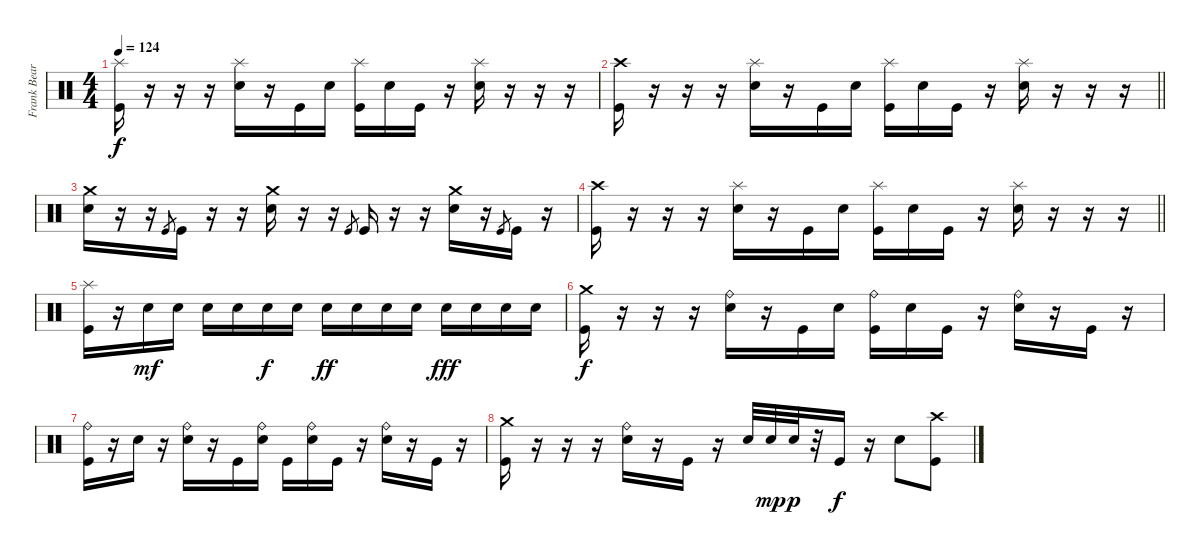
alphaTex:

\track ("Frank Beard" "Frank Bear") {instrument percussion}
\staff {score}
\articulation defaults
\ts (4 4)
\tempo 124
\clef neutral
\ks c
("Splash (hit)" "Kick (hit)").16{dy f} r.16 r.16 r.16 ("Splash (hit)" "Electric Snare (hit)").16 r.16 "Kick (hit)".16 "Electric Snare (hit)".16 ("Splash (hit)" "Kick (hit)").16 "Electric Snare (hit)".16 "Kick (hit)".16 r.16 ("Splash (hit)" "Electric Snare (hit)").16 r.16 r.16 r.16 |
\barLineRight lightlight
("Crash high (hit)" "Kick (hit)").16 r.16 r.16 r.16 ("Splash (hit)" "Electric Snare (hit)").16 r.16 "Kick (hit)".16 "Electric Snare (hit)".16 ("Splash (hit)" "Kick (hit)").16 "Electric Snare (hit)".16 "Kick (hit)".16 r.16 ("Splash (hit)" "Electric Snare (hit)").16 r.16 r.16 r.16 |
("Crash medium (hit)" "Electric Snare (hit)").16 r.16 r.16 "Kick (hit)".8{gr} "Kick (hit)".16 r.16 r.16 ("Crash medium (hit)" "Electric Snare (hit)").16 r.16 r.16 "Kick (hit)".8{gr} "Kick (hit)".16 r.16 r.16 ("Crash medium (hit)" "Electric Snare (hit)").16 r.16 "Kick (hit)".8{gr} "Kick (hit)".16 r.16 |
\barLineRight lightlight
("Crash high (hit)" "Kick (hit)").16 r.16 r.16 r.16 ("Splash (hit)" "Electric Snare (hit)").16 r.16 "Kick (hit)".16 "Electric Snare (hit)".16 ("Splash (hit)" "Kick (hit)").16 "Electric Snare (hit)".16 "Kick (hit)".16 r.16 ("Splash (hit)" "Electric Snare (hit)").16 r.16 r.16 r.16 |
("Splash (hit)" "Kick (hit)").16 r.16 "Electric Snare (hit)".16{dy mf} "Electric Snare (hit)".16 "Electric Snare (hit)".16 "Electric Snare (hit)".16 "Electric Snare (hit)".16{dy f} "Electric Snare (hit)".16 "Electric Snare (hit)".16{dy ff} "Electric Snare (hit)".16 "Electric Snare (hit)".16 "Electric Snare (hit)".16 "Electric Snare (hit)".16{dy fff} "Electric Snare (hit)".16 "Electric Snare (hit)".16 "Electric Snare (hit)".16 |
("Crash medium (hit)" "Kick (hit)").16{dy f} r.16 r.16 r.16 ("Ride (bell)" "Electric Snare (hit)").16 r.16 "Kick (hit)".16 "Electric Snare (hit)".16 ("Ride (bell)" "Kick (hit)").16 "Electric Snare (hit)".16 "Kick (hit)".16 r.16 ("Ride (bell)" "Electric Snare (hit)").16 r.16 "Kick (hit)".16 r.16 |
("Ride (bell)" "Kick (hit)").16 r.16 "Electric Snare (hit)".16 r.16 ("Ride (bell)" "Electric Snare (hit)").16 r.16 "Kick (hit)".16 ("Ride (bell)" "Electric Snare (hit)").16 "Kick (hit)".16 ("Ride (bell)" "Electric Snare (hit)").16 "Kick (hit)".16 r.16 ("Ride (bell)" "Electric Snare (hit)").16 r.16 "Kick (hit)".16 r.16 |
("Crash medium (hit)" "Kick (hit)").16 r.16 r.16 r.16 ("Ride (bell)" "Electric Snare (hit)").16 r.16 "Kick (hit)".16 r.16 "Electric Snare (hit)".32 "Electric Snare (hit)".32{dy mp} "Electric Snare (hit)".32{dy p} r.32 "Kick (hit)".16{dy f} r.16 "Electric Snare (hit)".8 ("Crash high (hit)" "Kick (hit)").8
